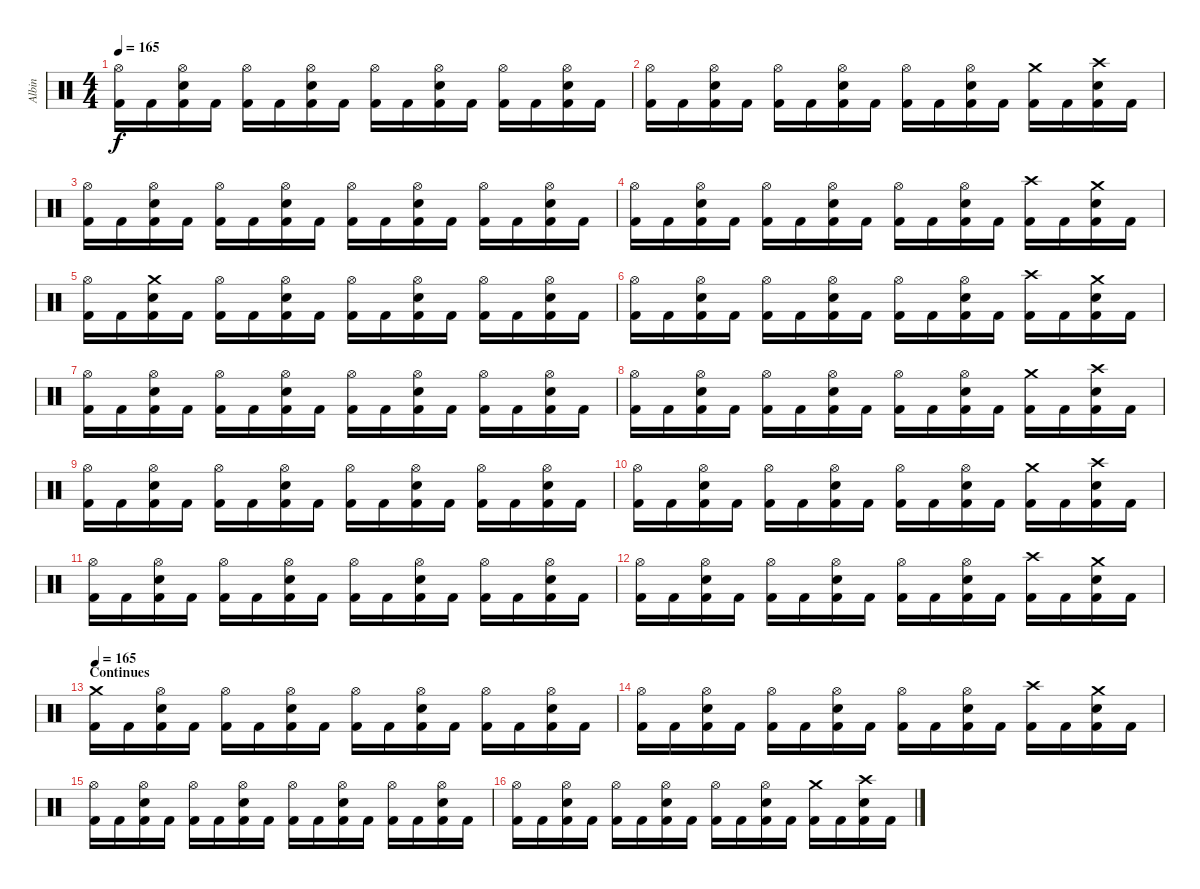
\track ("Albin" "Albin") {instrument percussion}
\staff {score}
\articulation defaults
\ts (4 4)
\tempo 165
\clef neutral
\ks c
("Hi-Hat (open)" "Kick (hit) 2").16{dy f} "Kick (hit) 2".16 ("Hi-Hat (open)" "Electric Snare (hit)" "Kick (hit) 2").16 "Kick (hit) 2".16 ("Hi-Hat (open)" "Kick (hit) 2").16 "Kick (hit) 2".16 ("Hi-Hat (open)" "Electric Snare (hit)" "Kick (hit) 2").16 "Kick (hit) 2".16 ("Hi-Hat (open)" "Kick (hit) 2").16 "Kick (hit) 2".16 ("Hi-Hat (open)" "Electric Snare (hit)" "Kick (hit) 2").16 "Kick (hit) 2".16 ("Hi-Hat (open)" "Kick (hit) 2").16 "Kick (hit) 2".16 ("Hi-Hat (open)" "Electric Snare (hit)" "Kick (hit) 2").16 "Kick (hit) 2".16 |
("Hi-Hat (open)" "Kick (hit) 2").16 "Kick (hit) 2".16 ("Hi-Hat (open)" "Electric Snare (hit)" "Kick (hit) 2").16 "Kick (hit) 2".16 ("Hi-Hat (open)" "Kick (hit) 2").16 "Kick (hit) 2".16 ("Hi-Hat (open)" "Electric Snare (hit)" "Kick (hit) 2").16 "Kick (hit) 2".16 ("Hi-Hat (open)" "Kick (hit) 2").16 "Kick (hit) 2".16 ("Hi-Hat (open)" "Electric Snare (hit)" "Kick (hit) 2").16 "Kick (hit) 2".16 ("Crash medium (hit)" "Kick (hit) 2").16 "Kick (hit) 2".16 ("Crash high (hit)" "Electric Snare (hit)" "Kick (hit) 2").16 "Kick (hit) 2".16 |
("Hi-Hat (open)" "Kick (hit) 2").16 "Kick (hit) 2".16 ("Hi-Hat (open)" "Electric Snare (hit)" "Kick (hit) 2").16 "Kick (hit) 2".16 ("Hi-Hat (open)" "Kick (hit) 2").16 "Kick (hit) 2".16 ("Hi-Hat (open)" "Electric Snare (hit)" "Kick (hit) 2").16 "Kick (hit) 2".16 ("Hi-Hat (open)" "Kick (hit) 2").16 "Kick (hit) 2".16 ("Hi-Hat (open)" "Electric Snare (hit)" "Kick (hit) 2").16 "Kick (hit) 2".16 ("Hi-Hat (open)" "Kick (hit) 2").16 "Kick (hit) 2".16 ("Hi-Hat (open)" "Electric Snare (hit)" "Kick (hit) 2").16 "Kick (hit) 2".16 |
("Hi-Hat (open)" "Kick (hit) 2").16 "Kick (hit) 2".16 ("Hi-Hat (open)" "Electric Snare (hit)" "Kick (hit) 2").16 "Kick (hit) 2".16 ("Hi-Hat (open)" "Kick (hit) 2").16 "Kick (hit) 2".16 ("Hi-Hat (open)" "Electric Snare (hit)" "Kick (hit) 2").16 "Kick (hit) 2".16 ("Hi-Hat (open)" "Kick (hit) 2").16 "Kick (hit) 2".16 ("Hi-Hat (open)" "Electric Snare (hit)" "Kick (hit) 2").16 "Kick (hit) 2".16 ("Crash high (hit)" "Kick (hit) 2").16 "Kick (hit) 2".16 ("Crash medium (hit)" "Electric Snare (hit)" "Kick (hit) 2").16 "Kick (hit) 2".16 |
("Hi-Hat (open)" "Kick (hit) 2").16 "Kick (hit) 2".16 ("Crash medium (hit)" "Electric Snare (hit)" "Kick (hit) 2").16 "Kick (hit) 2".16 ("Hi-Hat (open)" "Kick (hit) 2").16 "Kick (hit) 2".16 ("Hi-Hat (open)" "Electric Snare (hit)" "Kick (hit) 2").16 "Kick (hit) 2".16 ("Hi-Hat (open)" "Kick (hit) 2").16 "Kick (hit) 2".16 ("Hi-Hat (open)" "Electric Snare (hit)" "Kick (hit) 2").16 "Kick (hit) 2".16 ("Hi-Hat (open)" "Kick (hit) 2").16 "Kick (hit) 2".16 ("Hi-Hat (open)" "Electric Snare (hit)" "Kick (hit) 2").16 "Kick (hit) 2".16 |
("Hi-Hat (open)" "Kick (hit) 2").16 "Kick (hit) 2".16 ("Hi-Hat (open)" "Electric Snare (hit)" "Kick (hit) 2").16 "Kick (hit) 2".16 ("Hi-Hat (open)" "Kick (hit) 2").16 "Kick (hit) 2".16 ("Hi-Hat (open)" "Electric Snare (hit)" "Kick (hit) 2").16 "Kick (hit) 2".16 ("Hi-Hat (open)" "Kick (hit) 2").16 "Kick (hit) 2".16 ("Hi-Hat (open)" "Electric Snare (hit)" "Kick (hit) 2").16 "Kick (hit) 2".16 ("Crash high (hit)" "Kick (hit) 2").16 "Kick (hit) 2".16 ("Crash medium (hit)" "Electric Snare (hit)" "Kick (hit) 2").16 "Kick (hit) 2".16 |
("Hi-Hat (open)" "Kick (hit) 2").16 "Kick (hit) 2".16 ("Hi-Hat (open)" "Electric Snare (hit)" "Kick (hit) 2").16 "Kick (hit) 2".16 ("Hi-Hat (open)" "Kick (hit) 2").16 "Kick (hit) 2".16 ("Hi-Hat (open)" "Electric Snare (hit)" "Kick (hit) 2").16 "Kick (hit) 2".16 ("Hi-Hat (open)" "Kick (hit) 2").16 "Kick (hit) 2".16 ("Hi-Hat (open)" "Electric Snare (hit)" "Kick (hit) 2").16 "Kick (hit) 2".16 ("Hi-Hat (open)" "Kick (hit) 2").16 "Kick (hit) 2".16 ("Hi-Hat (open)" "Electric Snare (hit)" "Kick (hit) 2").16 "Kick (hit) 2".16 |
("Hi-Hat (open)" "Kick (hit) 2").16 "Kick (hit) 2".16 ("Hi-Hat (open)" "Electric Snare (hit)" "Kick (hit) 2").16 "Kick (hit) 2".16 ("Hi-Hat (open)" "Kick (hit) 2").16 "Kick (hit) 2".16 ("Hi-Hat (open)" "Electric Snare (hit)" "Kick (hit) 2").16 "Kick (hit) 2".16 ("Hi-Hat (open)" "Kick (hit) 2").16 "Kick (hit) 2".16 ("Hi-Hat (open)" "Electric Snare (hit)" "Kick (hit) 2").16 "Kick (hit) 2".16 ("Crash medium (hit)" "Kick (hit) 2").16 "Kick (hit) 2".16 ("Crash high (hit)" "Electric Snare (hit)" "Kick (hit) 2").16 "Kick (hit) 2".16 |
("Hi-Hat (open)" "Kick (hit) 2").16 "Kick (hit) 2".16 ("Hi-Hat (open)" "Electric Snare (hit)" "Kick (hit) 2").16 "Kick (hit) 2".16 ("Hi-Hat (open)" "Kick (hit) 2").16 "Kick (hit) 2".16 ("Hi-Hat (open)" "Electric Snare (hit)" "Kick (hit) 2").16 "Kick (hit) 2".16 ("Hi-Hat (open)" "Kick (hit) 2").16 "Kick (hit) 2".16 ("Hi-Hat (open)" "Electric Snare (hit)" "Kick (hit) 2").16 "Kick (hit) 2".16 ("Hi-Hat (open)" "Kick (hit) 2").16 "Kick (hit) 2".16 ("Hi-Hat (open)" "Electric Snare (hit)" "Kick (hit) 2").16 "Kick (hit) 2".16 |
("Hi-Hat (open)" "Kick (hit) 2").16 "Kick (hit) 2".16 ("Hi-Hat (open)" "Electric Snare (hit)" "Kick (hit) 2").16 "Kick (hit) 2".16 ("Hi-Hat (open)" "Kick (hit) 2").16 "Kick (hit) 2".16 ("Hi-Hat (open)" "Electric Snare (hit)" "Kick (hit) 2").16 "Kick (hit) 2".16 ("Hi-Hat (open)" "Kick (hit) 2").16 "Kick (hit) 2".16 ("Hi-Hat (open)" "Electric Snare (hit)" "Kick (hit) 2").16 "Kick (hit) 2".16 ("Crash medium (hit)" "Kick (hit) 2").16 "Kick (hit) 2".16 ("Crash high (hit)" "Electric Snare (hit)" "Kick (hit) 2").16 "Kick (hit) 2".16 |
("Hi-Hat (open)" "Kick (hit) 2").16 "Kick (hit) 2".16 ("Hi-Hat (open)" "Electric Snare (hit)" "Kick (hit) 2").16 "Kick (hit) 2".16 ("Hi-Hat (open)" "Kick (hit) 2").16 "Kick (hit) 2".16 ("Hi-Hat (open)" "Electric Snare (hit)" "Kick (hit) 2").16 "Kick (hit) 2".16 ("Hi-Hat (open)" "Kick (hit) 2").16 "Kick (hit) 2".16 ("Hi-Hat (open)" "Electric Snare (hit)" "Kick (hit) 2").16 "Kick (hit) 2".16 ("Hi-Hat (open)" "Kick (hit) 2").16 "Kick (hit) 2".16 ("Hi-Hat (open)" "Electric Snare (hit)" "Kick (hit) 2").16 "Kick (hit) 2".16 |
("Hi-Hat (open)" "Kick (hit) 2").16 "Kick (hit) 2".16 ("Hi-Hat (open)" "Electric Snare (hit)" "Kick (hit) 2").16 "Kick (hit) 2".16 ("Hi-Hat (open)" "Kick (hit) 2").16 "Kick (hit) 2".16 ("Hi-Hat (open)" "Electric Snare (hit)" "Kick (hit) 2").16 "Kick (hit) 2".16 ("Hi-Hat (open)" "Kick (hit) 2").16 "Kick (hit) 2".16 ("Hi-Hat (open)" "Electric Snare (hit)" "Kick (hit) 2").16 "Kick (hit) 2".16 ("Crash high (hit)" "Kick (hit) 2").16 "Kick (hit) 2".16 ("Crash medium (hit)" "Electric Snare (hit)" "Kick (hit) 2").16 "Kick (hit) 2".16 |
\section ("" "Continues")
\tempo 165
("Crash medium (hit)" "Kick (hit) 2").16 "Kick (hit) 2".16 ("Hi-Hat (open)" "Electric Snare (hit)" "Kick (hit) 2").16 "Kick (hit) 2".16 ("Hi-Hat (open)" "Kick (hit) 2").16 "Kick (hit) 2".16 ("Hi-Hat (open)" "Electric Snare (hit)" "Kick (hit) 2").16 "Kick (hit) 2".16 ("Hi-Hat (open)" "Kick (hit) 2").16 "Kick (hit) 2".16 ("Hi-Hat (open)" "Electric Snare (hit)" "Kick (hit) 2").16 "Kick (hit) 2".16 ("Hi-Hat (open)" "Kick (hit) 2").16 "Kick (hit) 2".16 ("Hi-Hat (open)" "Electric Snare (hit)" "Kick (hit) 2").16 "Kick (hit) 2".16 |
("Hi-Hat (open)" "Kick (hit) 2").16 "Kick (hit) 2".16 ("Hi-Hat (open)" "Electric Snare (hit)" "Kick (hit) 2").16 "Kick (hit) 2".16 ("Hi-Hat (open)" "Kick (hit) 2").16 "Kick (hit) 2".16 ("Hi-Hat (open)" "Electric Snare (hit)" "Kick (hit) 2").16 "Kick (hit) 2".16 ("Hi-Hat (open)" "Kick (hit) 2").16 "Kick (hit) 2".16 ("Hi-Hat (open)" "Electric Snare (hit)" "Kick (hit) 2").16 "Kick (hit) 2".16 ("Crash high (hit)" "Kick (hit) 2").16 "Kick (hit) 2".16 ("Crash medium (hit)" "Electric Snare (hit)" "Kick (hit) 2").16 "Kick (hit) 2".16 |
("Hi-Hat (open)" "Kick (hit) 2").16 "Kick (hit) 2".16 ("Hi-Hat (open)" "Electric Snare (hit)" "Kick (hit) 2").16 "Kick (hit) 2".16 ("Hi-Hat (open)" "Kick (hit) 2").16 "Kick (hit) 2".16 ("Hi-Hat (open)" "Electric Snare (hit)" "Kick (hit) 2").16 "Kick (hit) 2".16 ("Hi-Hat (open)" "Kick (hit) 2").16 "Kick (hit) 2".16 ("Hi-Hat (open)" "Electric Snare (hit)" "Kick (hit) 2").16 "Kick (hit) 2".16 ("Hi-Hat (open)" "Kick (hit) 2").16 "Kick (hit) 2".16 ("Hi-Hat (open)" "Electric Snare (hit)" "Kick (hit) 2").16 "Kick (hit) 2".16 |
("Hi-Hat (open)" "Kick (hit) 2").16 "Kick (hit) 2".16 ("Hi-Hat (open)" "Electric Snare (hit)" "Kick (hit) 2").16 "Kick (hit) 2".16 ("Hi-Hat (open)" "Kick (hit) 2").16 "Kick (hit) 2".16 ("Hi-Hat (open)" "Electric Snare (hit)" "Kick (hit) 2").16 "Kick (hit) 2".16 ("Hi-Hat (open)" "Kick (hit) 2").16 "Kick (hit) 2".16 ("Hi-Hat (open)" "Electric Snare (hit)" "Kick (hit) 2").16 "Kick (hit) 2".16 ("Crash medium (hit)" "Kick (hit) 2").16 "Kick (hit) 2".16 ("Crash high (hit)" "Electric Snare (hit)" "Kick (hit) 2").16 "Kick (hit) 2".16
